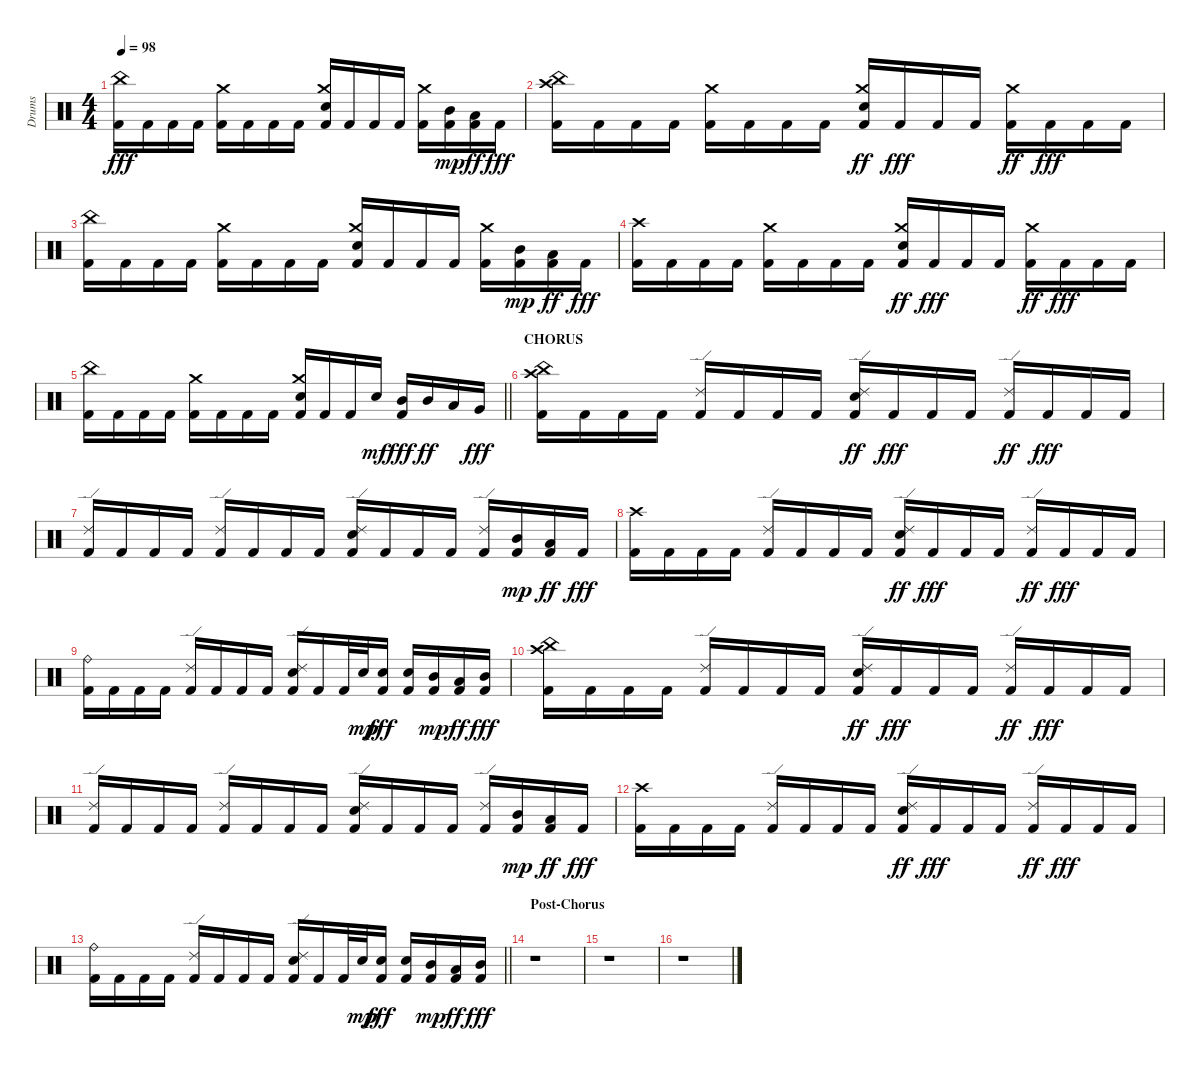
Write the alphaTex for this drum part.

\track ("Drums" "Drums") {instrument percussion}
\staff {score}
\articulation defaults
\ts (4 4)
\tempo 98
\clef neutral
\ks c
("Kick (hit) 2" "China (hit)").16{dy fff} "Kick (hit) 2".16 "Kick (hit) 2".16 "Kick (hit) 2".16 ("Kick (hit) 2" "Crash medium (hit)").16 "Kick (hit) 2".16 "Kick (hit) 2".16 "Kick (hit) 2".16 ("Kick (hit) 2" "Snare (hit) 2" "Crash medium (hit)").16 "Kick (hit) 2".16 "Kick (hit) 2".16 "Kick (hit) 2".16 ("Kick (hit) 2" "Crash medium (hit)").16 ("Kick (hit) 2" "Mid Tom (hit)").16{dy mp} ("Kick (hit) 2" "Low Tom (hit)").16{dy ff} "Kick (hit) 2".16{dy fff} |
("Kick (hit) 2" "Crash high (hit)" "China (hit)").16 "Kick (hit) 2".16 "Kick (hit) 2".16 "Kick (hit) 2".16 ("Kick (hit) 2" "Crash medium (hit)").16 "Kick (hit) 2".16 "Kick (hit) 2".16 "Kick (hit) 2".16 ("Kick (hit) 2" "Snare (hit) 2" "Crash medium (hit)").16{dy ff} "Kick (hit) 2".16{dy fff} "Kick (hit) 2".16 "Kick (hit) 2".16 ("Kick (hit) 2" "Crash medium (hit)").16{dy ff} "Kick (hit) 2".16{dy fff} "Kick (hit) 2".16 "Kick (hit) 2".16 |
("Kick (hit) 2" "China (hit)").16 "Kick (hit) 2".16 "Kick (hit) 2".16 "Kick (hit) 2".16 ("Kick (hit) 2" "Crash medium (hit)").16 "Kick (hit) 2".16 "Kick (hit) 2".16 "Kick (hit) 2".16 ("Kick (hit) 2" "Snare (hit) 2" "Crash medium (hit)").16 "Kick (hit) 2".16 "Kick (hit) 2".16 "Kick (hit) 2".16 ("Kick (hit) 2" "Crash medium (hit)").16 ("Kick (hit) 2" "Mid Tom (hit)").16{dy mp} ("Kick (hit) 2" "Low Tom (hit)").16{dy ff} "Kick (hit) 2".16{dy fff} |
("Kick (hit) 2" "Crash high (hit)").16 "Kick (hit) 2".16 "Kick (hit) 2".16 "Kick (hit) 2".16 ("Kick (hit) 2" "Crash medium (hit)").16 "Kick (hit) 2".16 "Kick (hit) 2".16 "Kick (hit) 2".16 ("Kick (hit) 2" "Snare (hit) 2" "Crash medium (hit)").16{dy ff} "Kick (hit) 2".16{dy fff} "Kick (hit) 2".16 "Kick (hit) 2".16 ("Kick (hit) 2" "Crash medium (hit)").16{dy ff} "Kick (hit) 2".16{dy fff} "Kick (hit) 2".16 "Kick (hit) 2".16 |
\barLineRight lightlight
("Kick (hit) 2" "China (hit)").16 "Kick (hit) 2".16 "Kick (hit) 2".16 "Kick (hit) 2".16 ("Kick (hit) 2" "Crash medium (hit)").16 "Kick (hit) 2".16 "Kick (hit) 2".16 "Kick (hit) 2".16 ("Kick (hit) 2" "Snare (hit) 2" "Crash medium (hit)").16 "Kick (hit) 2".16 "Kick (hit) 2".16 "Snare (hit) 2".16{dy mf} ("Kick (hit) 2" "Mid Tom (hit)").16{dy fff} "Mid Tom (hit)".16{dy ff} "Low Tom (hit)".16 "Very Low Tom (hit)".16{dy fff} |
\section ("" "CHORUS")
("Kick (hit) 2" "Crash high (hit)" "China (hit)").16 "Kick (hit) 2".16 "Kick (hit) 2".16 "Kick (hit) 2".16 ("Kick (hit) 2" "Ride (edge) 2").16 "Kick (hit) 2".16 "Kick (hit) 2".16 "Kick (hit) 2".16 ("Kick (hit) 2" "Snare (hit) 2" "Ride (edge) 2").16{dy ff} "Kick (hit) 2".16{dy fff} "Kick (hit) 2".16 "Kick (hit) 2".16 ("Kick (hit) 2" "Ride (edge) 2").16{dy ff} "Kick (hit) 2".16{dy fff} "Kick (hit) 2".16 "Kick (hit) 2".16 |
("Kick (hit) 2" "Ride (edge) 2").16 "Kick (hit) 2".16 "Kick (hit) 2".16 "Kick (hit) 2".16 ("Kick (hit) 2" "Ride (edge) 2").16 "Kick (hit) 2".16 "Kick (hit) 2".16 "Kick (hit) 2".16 ("Kick (hit) 2" "Snare (hit) 2" "Ride (edge) 2").16 "Kick (hit) 2".16 "Kick (hit) 2".16 "Kick (hit) 2".16 ("Kick (hit) 2" "Ride (edge) 2").16 ("Kick (hit) 2" "Mid Tom (hit)").16{dy mp} ("Kick (hit) 2" "Low Tom (hit)").16{dy ff} "Kick (hit) 2".16{dy fff} |
("Kick (hit) 2" "Crash high (hit)").16 "Kick (hit) 2".16 "Kick (hit) 2".16 "Kick (hit) 2".16 ("Kick (hit) 2" "Ride (edge) 2").16 "Kick (hit) 2".16 "Kick (hit) 2".16 "Kick (hit) 2".16 ("Kick (hit) 2" "Snare (hit) 2" "Ride (edge) 2").16{dy ff} "Kick (hit) 2".16{dy fff} "Kick (hit) 2".16 "Kick (hit) 2".16 ("Kick (hit) 2" "Ride (edge) 2").16{dy ff} "Kick (hit) 2".16{dy fff} "Kick (hit) 2".16 "Kick (hit) 2".16 |
("Kick (hit) 2" "Ride (bell)").16 "Kick (hit) 2".16 "Kick (hit) 2".16 "Kick (hit) 2".16 ("Kick (hit) 2" "Ride (edge) 2").16 "Kick (hit) 2".16 "Kick (hit) 2".16 "Kick (hit) 2".16 ("Kick (hit) 2" "Snare (hit) 2" "Ride (edge) 2").16 "Kick (hit) 2".16 "Kick (hit) 2".32 "Snare (hit) 2".32{dy mp} ("Kick (hit) 2" "Snare (hit) 2").16{dy fff} ("Kick (hit) 2" "Snare (hit) 2").16 ("Kick (hit) 2" "Mid Tom (hit)").16{dy mp} ("Kick (hit) 2" "Low Tom (hit)").16{dy ff} ("Kick (hit) 2" "Mid Tom (hit)").16{dy fff} |
("Kick (hit) 2" "Crash high (hit)" "China (hit)").16 "Kick (hit) 2".16 "Kick (hit) 2".16 "Kick (hit) 2".16 ("Kick (hit) 2" "Ride (edge) 2").16 "Kick (hit) 2".16 "Kick (hit) 2".16 "Kick (hit) 2".16 ("Kick (hit) 2" "Snare (hit) 2" "Ride (edge) 2").16{dy ff} "Kick (hit) 2".16{dy fff} "Kick (hit) 2".16 "Kick (hit) 2".16 ("Kick (hit) 2" "Ride (edge) 2").16{dy ff} "Kick (hit) 2".16{dy fff} "Kick (hit) 2".16 "Kick (hit) 2".16 |
("Kick (hit) 2" "Ride (edge) 2").16 "Kick (hit) 2".16 "Kick (hit) 2".16 "Kick (hit) 2".16 ("Kick (hit) 2" "Ride (edge) 2").16 "Kick (hit) 2".16 "Kick (hit) 2".16 "Kick (hit) 2".16 ("Kick (hit) 2" "Snare (hit) 2" "Ride (edge) 2").16 "Kick (hit) 2".16 "Kick (hit) 2".16 "Kick (hit) 2".16 ("Kick (hit) 2" "Ride (edge) 2").16 ("Kick (hit) 2" "Mid Tom (hit)").16{dy mp} ("Kick (hit) 2" "Low Tom (hit)").16{dy ff} "Kick (hit) 2".16{dy fff} |
("Kick (hit) 2" "Crash high (hit)").16 "Kick (hit) 2".16 "Kick (hit) 2".16 "Kick (hit) 2".16 ("Kick (hit) 2" "Ride (edge) 2").16 "Kick (hit) 2".16 "Kick (hit) 2".16 "Kick (hit) 2".16 ("Kick (hit) 2" "Snare (hit) 2" "Ride (edge) 2").16{dy ff} "Kick (hit) 2".16{dy fff} "Kick (hit) 2".16 "Kick (hit) 2".16 ("Kick (hit) 2" "Ride (edge) 2").16{dy ff} "Kick (hit) 2".16{dy fff} "Kick (hit) 2".16 "Kick (hit) 2".16 |
\barLineRight lightlight
("Kick (hit) 2" "Ride (bell)").16 "Kick (hit) 2".16 "Kick (hit) 2".16 "Kick (hit) 2".16 ("Kick (hit) 2" "Ride (edge) 2").16 "Kick (hit) 2".16 "Kick (hit) 2".16 "Kick (hit) 2".16 ("Kick (hit) 2" "Snare (hit) 2" "Ride (edge) 2").16 "Kick (hit) 2".16 "Kick (hit) 2".32 "Snare (hit) 2".32{dy mp} ("Kick (hit) 2" "Snare (hit) 2").16{dy fff} ("Kick (hit) 2" "Snare (hit) 2").16 ("Kick (hit) 2" "Mid Tom (hit)").16{dy mp} ("Kick (hit) 2" "Low Tom (hit)").16{dy ff} ("Kick (hit) 2" "Mid Tom (hit)").16{dy fff} |
\section ("" "Post-Chorus")
r.1 |
r.1 |
r.1
